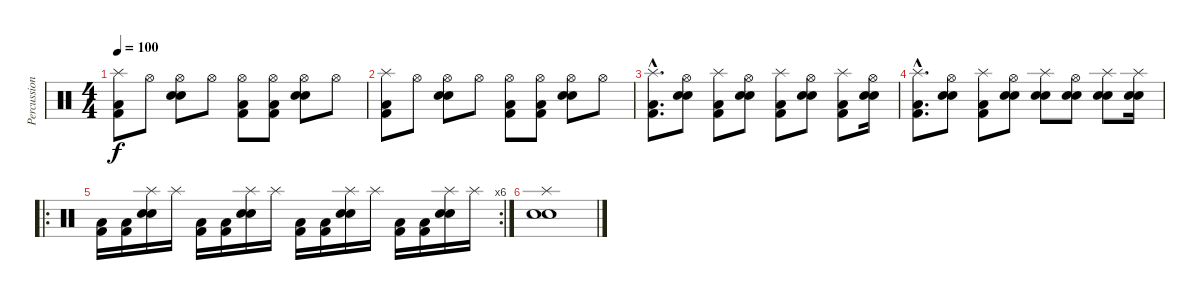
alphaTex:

\track ("Percussions" "Percussion") {instrument percussion}
\staff {score}
\articulation defaults
\ts (4 4)
\tempo 100
\clef neutral
\ks c
("Splash (hit)" "Kick (hit) 2" "Low Floor Tom (hit)").8{dy f} "Hi-Hat (open)".8 ("Hi-Hat (open)" "Snare (hit) 2" "Electric Snare (hit)").8 "Hi-Hat (open)".8 ("Hi-Hat (open)" "Kick (hit) 2" "Low Floor Tom (hit)").8 ("Hi-Hat (open)" "Kick (hit) 2" "Low Floor Tom (hit)").8 ("Hi-Hat (open)" "Snare (hit) 2" "Electric Snare (hit)").8 "Hi-Hat (open)".8 |
("Splash (hit)" "Kick (hit) 2" "Low Floor Tom (hit)").8 "Hi-Hat (open)".8 ("Hi-Hat (open)" "Snare (hit) 2" "Electric Snare (hit)").8 "Hi-Hat (open)".8 ("Hi-Hat (open)" "Kick (hit) 2" "Low Floor Tom (hit)").8 ("Hi-Hat (open)" "Kick (hit) 2" "Low Floor Tom (hit)").8 ("Hi-Hat (open)" "Snare (hit) 2" "Electric Snare (hit)").8 "Hi-Hat (open)".8 |
("Splash (hit)"{hac} "Kick (hit) 2"{hac} "Low Floor Tom (hit)"{hac}).8{d} ("Hi-Hat (open)" "Snare (hit) 2" "Electric Snare (hit)").8 ("Splash (hit)" "Kick (hit) 2" "Low Floor Tom (hit)").8 ("Hi-Hat (open)" "Snare (hit) 2" "Electric Snare (hit)").8 ("Splash (hit)" "Kick (hit) 2" "Low Floor Tom (hit)").8 ("Hi-Hat (open)" "Snare (hit) 2" "Electric Snare (hit)").8 ("Splash (hit)" "Kick (hit) 2" "Low Floor Tom (hit)").8 ("Hi-Hat (open)" "Snare (hit) 2" "Electric Snare (hit)").16 |
("Splash (hit)"{hac} "Kick (hit) 2"{hac} "Low Floor Tom (hit)"{hac}).8{d} ("Hi-Hat (open)" "Snare (hit) 2" "Electric Snare (hit)").8 ("Splash (hit)" "Kick (hit) 2" "Low Floor Tom (hit)").8 ("Hi-Hat (open)" "Snare (hit) 2" "Electric Snare (hit)").8 ("Splash (hit)" "Snare (hit) 2" "Electric Snare (hit)").8 ("Hi-Hat (open)" "Snare (hit) 2" "Electric Snare (hit)").8 ("Splash (hit)" "Snare (hit) 2" "Electric Snare (hit)").8 ("Splash (hit)" "Snare (hit) 2" "Electric Snare (hit)").16 |
\ro
\rc 6
("Low Floor Tom (hit)" "Kick (hit) 2").16 ("Low Floor Tom (hit)" "Kick (hit) 2").16 ("Splash (hit)" "Snare (hit) 2" "Electric Snare (hit)").16 "Splash (hit)".16 ("Low Floor Tom (hit)" "Kick (hit) 2").16 ("Low Floor Tom (hit)" "Kick (hit) 2").16 ("Splash (hit)" "Snare (hit) 2" "Electric Snare (hit)").16 "Splash (hit)".16 ("Low Floor Tom (hit)" "Kick (hit) 2").16 ("Low Floor Tom (hit)" "Kick (hit) 2").16 ("Splash (hit)" "Snare (hit) 2" "Electric Snare (hit)").16 "Splash (hit)".16 ("Low Floor Tom (hit)" "Kick (hit) 2").16 ("Low Floor Tom (hit)" "Kick (hit) 2").16 ("Splash (hit)" "Snare (hit) 2" "Electric Snare (hit)").16 "Splash (hit)".16 |
("Splash (hit)" "Snare (hit) 2" "Electric Snare (hit)").1
